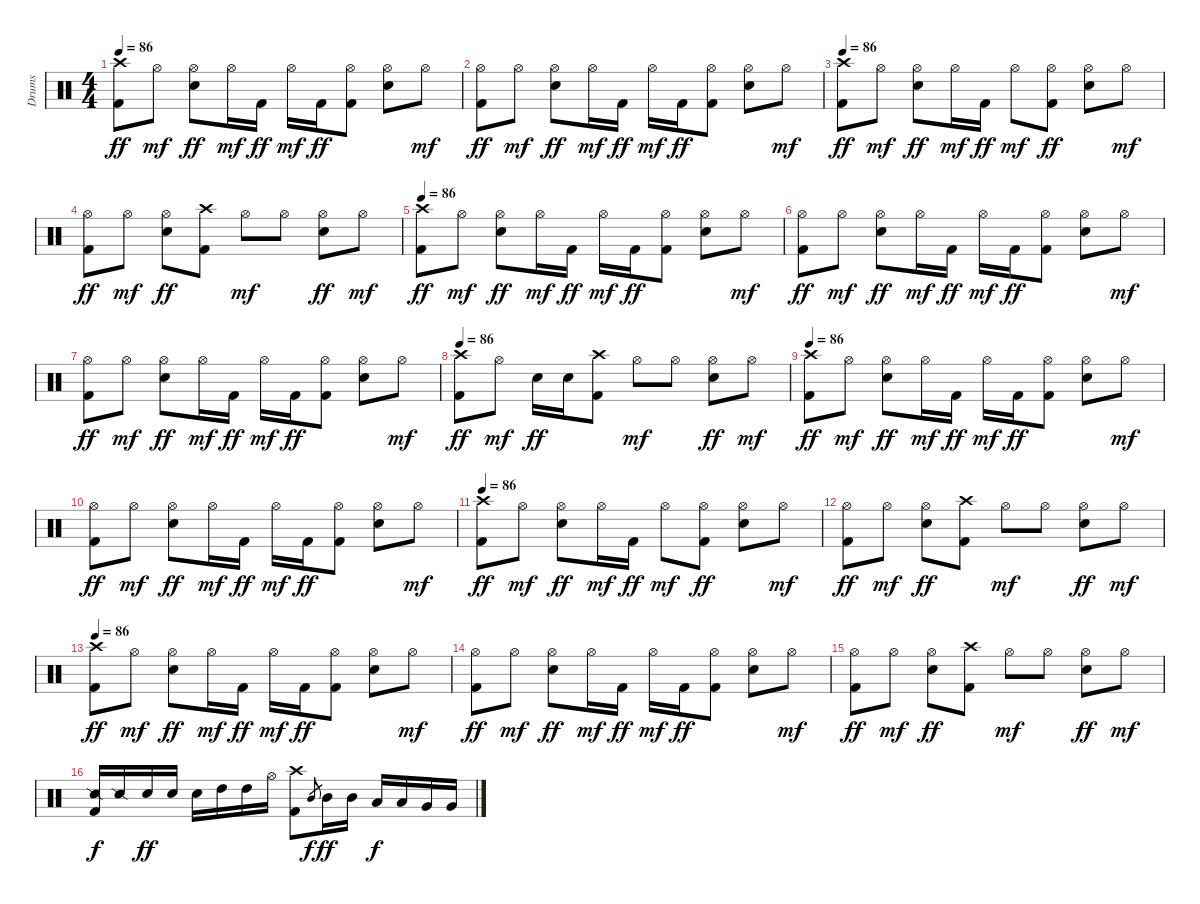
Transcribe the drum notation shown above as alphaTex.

\track ("Drums" "Drums") {instrument percussion}
\staff {score}
\articulation defaults
\ts (4 4)
\tempo 86
\clef neutral
\ks c
("Crash high (hit)" "Kick (hit) 2").8{dy ff} "Hi-Hat (open)".8{dy mf} ("Hi-Hat (open)" "Electric Snare (hit)").8{dy ff} "Hi-Hat (open)".16{dy mf} "Kick (hit) 2".16{dy ff} "Hi-Hat (open)".16{dy mf} "Kick (hit) 2".16{dy ff} ("Hi-Hat (open)" "Kick (hit) 2").8 ("Hi-Hat (open)" "Electric Snare (hit)").8 "Hi-Hat (open)".8{dy mf} |
("Hi-Hat (open)" "Kick (hit) 2").8{dy ff} "Hi-Hat (open)".8{dy mf} ("Hi-Hat (open)" "Electric Snare (hit)").8{dy ff} "Hi-Hat (open)".16{dy mf} "Kick (hit) 2".16{dy ff} "Hi-Hat (open)".16{dy mf} "Kick (hit) 2".16{dy ff} ("Hi-Hat (open)" "Kick (hit) 2").8 ("Hi-Hat (open)" "Electric Snare (hit)").8 "Hi-Hat (open)".8{dy mf} |
\tempo 86
("Crash high (hit)" "Kick (hit) 2").8{dy ff} "Hi-Hat (open)".8{dy mf} ("Hi-Hat (open)" "Electric Snare (hit)").8{dy ff} "Hi-Hat (open)".16{dy mf} "Kick (hit) 2".16{dy ff} "Hi-Hat (open)".8{dy mf} ("Hi-Hat (open)" "Kick (hit) 2").8{dy ff} ("Hi-Hat (open)" "Electric Snare (hit)").8 "Hi-Hat (open)".8{dy mf} |
("Hi-Hat (open)" "Kick (hit) 2").8{dy ff} "Hi-Hat (open)".8{dy mf} ("Hi-Hat (open)" "Electric Snare (hit)").8{dy ff} ("Crash high (hit)" "Kick (hit) 2").8 "Hi-Hat (open)".8{dy mf} "Hi-Hat (open)".8 ("Hi-Hat (open)" "Electric Snare (hit)").8{dy ff} "Hi-Hat (open)".8{dy mf} |
\tempo 86
("Crash high (hit)" "Kick (hit) 2").8{dy ff} "Hi-Hat (open)".8{dy mf} ("Hi-Hat (open)" "Electric Snare (hit)").8{dy ff} "Hi-Hat (open)".16{dy mf} "Kick (hit) 2".16{dy ff} "Hi-Hat (open)".16{dy mf} "Kick (hit) 2".16{dy ff} ("Hi-Hat (open)" "Kick (hit) 2").8 ("Hi-Hat (open)" "Electric Snare (hit)").8 "Hi-Hat (open)".8{dy mf} |
("Hi-Hat (open)" "Kick (hit) 2").8{dy ff} "Hi-Hat (open)".8{dy mf} ("Hi-Hat (open)" "Electric Snare (hit)").8{dy ff} "Hi-Hat (open)".16{dy mf} "Kick (hit) 2".16{dy ff} "Hi-Hat (open)".16{dy mf} "Kick (hit) 2".16{dy ff} ("Hi-Hat (open)" "Kick (hit) 2").8 ("Hi-Hat (open)" "Electric Snare (hit)").8 "Hi-Hat (open)".8{dy mf} |
("Hi-Hat (open)" "Kick (hit) 2").8{dy ff} "Hi-Hat (open)".8{dy mf} ("Hi-Hat (open)" "Electric Snare (hit)").8{dy ff} "Hi-Hat (open)".16{dy mf} "Kick (hit) 2".16{dy ff} "Hi-Hat (open)".16{dy mf} "Kick (hit) 2".16{dy ff} ("Hi-Hat (open)" "Kick (hit) 2").8 ("Hi-Hat (open)" "Electric Snare (hit)").8 "Hi-Hat (open)".8{dy mf} |
\tempo 86
("Crash high (hit)" "Kick (hit) 2").8{dy ff} "Hi-Hat (open)".8{dy mf} "Electric Snare (hit)".16{dy ff} "Electric Snare (hit)".16 ("Crash high (hit)" "Kick (hit) 2").8 "Hi-Hat (open)".8{dy mf} "Hi-Hat (open)".8 ("Hi-Hat (open)" "Electric Snare (hit)").8{dy ff} "Hi-Hat (open)".8{dy mf} |
\tempo 86
("Crash high (hit)" "Kick (hit) 2").8{dy ff} "Hi-Hat (open)".8{dy mf} ("Hi-Hat (open)" "Electric Snare (hit)").8{dy ff} "Hi-Hat (open)".16{dy mf} "Kick (hit) 2".16{dy ff} "Hi-Hat (open)".16{dy mf} "Kick (hit) 2".16{dy ff} ("Hi-Hat (open)" "Kick (hit) 2").8 ("Hi-Hat (open)" "Electric Snare (hit)").8 "Hi-Hat (open)".8{dy mf} |
("Hi-Hat (open)" "Kick (hit) 2").8{dy ff} "Hi-Hat (open)".8{dy mf} ("Hi-Hat (open)" "Electric Snare (hit)").8{dy ff} "Hi-Hat (open)".16{dy mf} "Kick (hit) 2".16{dy ff} "Hi-Hat (open)".16{dy mf} "Kick (hit) 2".16{dy ff} ("Hi-Hat (open)" "Kick (hit) 2").8 ("Hi-Hat (open)" "Electric Snare (hit)").8 "Hi-Hat (open)".8{dy mf} |
\tempo 86
("Crash high (hit)" "Kick (hit) 2").8{dy ff} "Hi-Hat (open)".8{dy mf} ("Hi-Hat (open)" "Electric Snare (hit)").8{dy ff} "Hi-Hat (open)".16{dy mf} "Kick (hit) 2".16{dy ff} "Hi-Hat (open)".8{dy mf} ("Hi-Hat (open)" "Kick (hit) 2").8{dy ff} ("Hi-Hat (open)" "Electric Snare (hit)").8 "Hi-Hat (open)".8{dy mf} |
("Hi-Hat (open)" "Kick (hit) 2").8{dy ff} "Hi-Hat (open)".8{dy mf} ("Hi-Hat (open)" "Electric Snare (hit)").8{dy ff} ("Crash high (hit)" "Kick (hit) 2").8 "Hi-Hat (open)".8{dy mf} "Hi-Hat (open)".8 ("Hi-Hat (open)" "Electric Snare (hit)").8{dy ff} "Hi-Hat (open)".8{dy mf} |
\tempo 86
("Crash high (hit)" "Kick (hit) 2").8{dy ff} "Hi-Hat (open)".8{dy mf} ("Hi-Hat (open)" "Electric Snare (hit)").8{dy ff} "Hi-Hat (open)".16{dy mf} "Kick (hit) 2".16{dy ff} "Hi-Hat (open)".16{dy mf} "Kick (hit) 2".16{dy ff} ("Hi-Hat (open)" "Kick (hit) 2").8 ("Hi-Hat (open)" "Electric Snare (hit)").8 "Hi-Hat (open)".8{dy mf} |
("Hi-Hat (open)" "Kick (hit) 2").8{dy ff} "Hi-Hat (open)".8{dy mf} ("Hi-Hat (open)" "Electric Snare (hit)").8{dy ff} "Hi-Hat (open)".16{dy mf} "Kick (hit) 2".16{dy ff} "Hi-Hat (open)".16{dy mf} "Kick (hit) 2".16{dy ff} ("Hi-Hat (open)" "Kick (hit) 2").8 ("Hi-Hat (open)" "Electric Snare (hit)").8 "Hi-Hat (open)".8{dy mf} |
("Hi-Hat (open)" "Kick (hit) 2").8{dy ff} "Hi-Hat (open)".8{dy mf} ("Hi-Hat (open)" "Electric Snare (hit)").8{dy ff} ("Crash high (hit)" "Kick (hit) 2").8 "Hi-Hat (open)".8{dy mf} "Hi-Hat (open)".8 ("Hi-Hat (open)" "Electric Snare (hit)").8{dy ff} "Hi-Hat (open)".8{dy mf} |
("Snare (side stick) 2" "Kick (hit) 2").16{dy f} "Snare (side stick) 2".16 "Electric Snare (hit)".16{dy ff} "Electric Snare (hit)".16 "Electric Snare (hit)".16 "High Tom (hit)".16 "High Tom (hit)".16 "Hi-Hat (open)".16 ("Crash high (hit)" "Kick (hit) 2").8 "Mid Tom (hit)".8{gr dy f} "Mid Tom (hit)".16{dy ff} "Mid Tom (hit)".16 "Low Tom (hit)".16{dy f} "Low Tom (hit)".16 "Very Low Tom (hit)".16 "Very Low Tom (hit)".16
